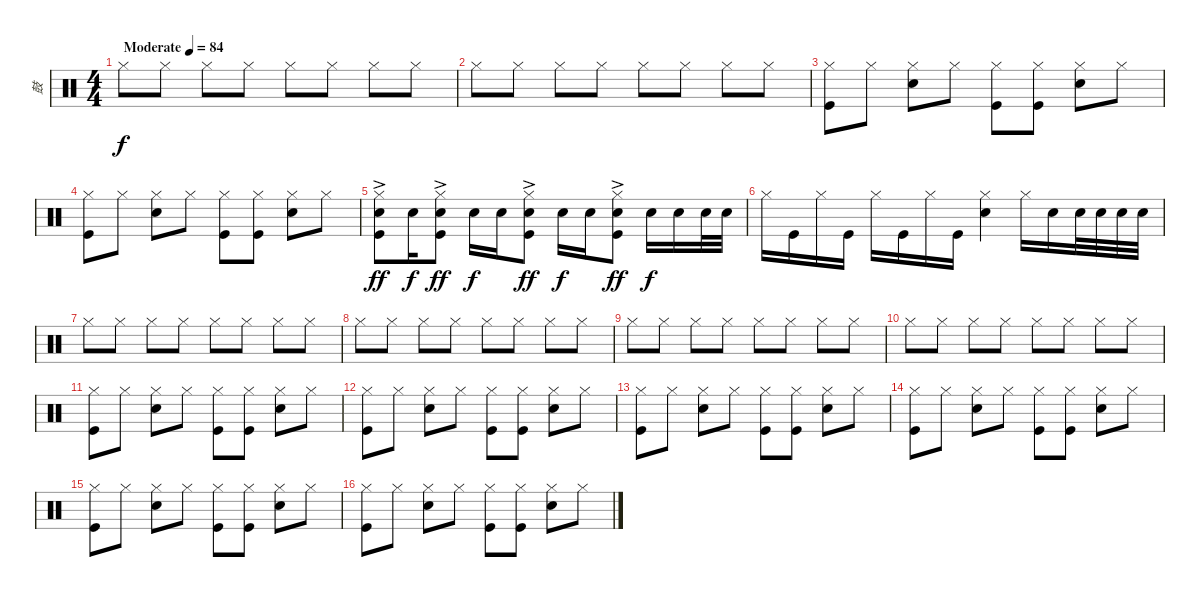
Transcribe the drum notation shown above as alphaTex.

\track ("鼓" "鼓") {instrument percussion}
\staff {score}
\articulation defaults
\ts (4 4)
\tempo (84 "Moderate")
\clef neutral
\ks c "Hi-Hat (closed)".8{dy f} "Hi-Hat (closed)".8 "Hi-Hat (closed)".8 "Hi-Hat (closed)".8 "Hi-Hat (closed)".8 "Hi-Hat (closed)".8 "Hi-Hat (closed)".8 "Hi-Hat (closed)".8
|
"Hi-Hat (closed)".8 "Hi-Hat (closed)".8 "Hi-Hat (closed)".8 "Hi-Hat (closed)".8 "Hi-Hat (closed)".8 "Hi-Hat (closed)".8 "Hi-Hat (closed)".8 "Hi-Hat (closed)".8 |
("Hi-Hat (closed)" "Kick (hit)").8 "Hi-Hat (closed)".8 ("Hi-Hat (closed)" "Snare (hit) 2").8 "Hi-Hat (closed)".8 ("Hi-Hat (closed)" "Kick (hit)").8 ("Hi-Hat (closed)" "Kick (hit)").8 ("Hi-Hat (closed)" "Snare (hit) 2").8 "Hi-Hat (closed)".8 |
("Hi-Hat (closed)" "Kick (hit)").8 "Hi-Hat (closed)".8 ("Hi-Hat (closed)" "Snare (hit) 2").8 "Hi-Hat (closed)".8 ("Hi-Hat (closed)" "Kick (hit)").8 ("Hi-Hat (closed)" "Kick (hit)").8 ("Hi-Hat (closed)" "Snare (hit) 2").8 "Hi-Hat (closed)".8 |
("Hi-Hat (closed)" "Snare (hit) 2" "Kick (hit)"{ac}).8{dy ff} "Snare (hit) 2".16{dy f} ("Hi-Hat (closed)" "Snare (hit) 2" "Kick (hit)"{ac}).8{dy ff} "Snare (hit) 2".16{dy f} "Snare (hit) 2".16 ("Hi-Hat (closed)" "Snare (hit) 2" "Kick (hit)"{ac}).8{dy ff} "Snare (hit) 2".16{dy f} "Snare (hit) 2".16 ("Hi-Hat (closed)" "Snare (hit) 2" "Kick (hit)"{ac}).8{dy ff} "Snare (hit) 2".16{dy f} "Snare (hit) 2".16 "Snare (hit) 2".32 "Snare (hit) 2".32 |
"Hi-Hat (closed)".16 "Kick (hit)".16 "Hi-Hat (closed)".16 "Kick (hit)".16 "Hi-Hat (closed)".16 "Kick (hit)".16 "Hi-Hat (closed)".16 "Kick (hit)".16 ("Hi-Hat (closed)" "Snare (hit) 2").4 "Hi-Hat (closed)".16 "Snare (hit) 2".16 "Snare (hit) 2".32 "Snare (hit) 2".32 "Snare (hit) 2".32 "Snare (hit) 2".32 |
"Hi-Hat (closed)".8 "Hi-Hat (closed)".8 "Hi-Hat (closed)".8 "Hi-Hat (closed)".8 "Hi-Hat (closed)".8 "Hi-Hat (closed)".8 "Hi-Hat (closed)".8 "Hi-Hat (closed)".8 |
"Hi-Hat (closed)".8 "Hi-Hat (closed)".8 "Hi-Hat (closed)".8 "Hi-Hat (closed)".8 "Hi-Hat (closed)".8 "Hi-Hat (closed)".8 "Hi-Hat (closed)".8 "Hi-Hat (closed)".8 |
"Hi-Hat (closed)".8 "Hi-Hat (closed)".8 "Hi-Hat (closed)".8 "Hi-Hat (closed)".8 "Hi-Hat (closed)".8 "Hi-Hat (closed)".8 "Hi-Hat (closed)".8 "Hi-Hat (closed)".8 |
"Hi-Hat (closed)".8 "Hi-Hat (closed)".8 "Hi-Hat (closed)".8 "Hi-Hat (closed)".8 "Hi-Hat (closed)".8 "Hi-Hat (closed)".8 "Hi-Hat (closed)".8 "Hi-Hat (closed)".8 |
("Hi-Hat (closed)" "Kick (hit)").8 "Hi-Hat (closed)".8 ("Hi-Hat (closed)" "Snare (hit) 2").8 "Hi-Hat (closed)".8 ("Hi-Hat (closed)" "Kick (hit)").8 ("Hi-Hat (closed)" "Kick (hit)").8 ("Hi-Hat (closed)" "Snare (hit) 2").8 "Hi-Hat (closed)".8 |
("Hi-Hat (closed)" "Kick (hit)").8 "Hi-Hat (closed)".8 ("Hi-Hat (closed)" "Snare (hit) 2").8 "Hi-Hat (closed)".8 ("Hi-Hat (closed)" "Kick (hit)").8 ("Hi-Hat (closed)" "Kick (hit)").8 ("Hi-Hat (closed)" "Snare (hit) 2").8 "Hi-Hat (closed)".8 |
("Hi-Hat (closed)" "Kick (hit)").8 "Hi-Hat (closed)".8 ("Hi-Hat (closed)" "Snare (hit) 2").8 "Hi-Hat (closed)".8 ("Hi-Hat (closed)" "Kick (hit)").8 ("Hi-Hat (closed)" "Kick (hit)").8 ("Hi-Hat (closed)" "Snare (hit) 2").8 "Hi-Hat (closed)".8 |
("Hi-Hat (closed)" "Kick (hit)").8 "Hi-Hat (closed)".8 ("Hi-Hat (closed)" "Snare (hit) 2").8 "Hi-Hat (closed)".8 ("Hi-Hat (closed)" "Kick (hit)").8 ("Hi-Hat (closed)" "Kick (hit)").8 ("Hi-Hat (closed)" "Snare (hit) 2").8 "Hi-Hat (closed)".8 |
("Hi-Hat (closed)" "Kick (hit)").8 "Hi-Hat (closed)".8 ("Hi-Hat (closed)" "Snare (hit) 2").8 "Hi-Hat (closed)".8 ("Hi-Hat (closed)" "Kick (hit)").8 ("Hi-Hat (closed)" "Kick (hit)").8 ("Hi-Hat (closed)" "Snare (hit) 2").8 "Hi-Hat (closed)".8 |
("Hi-Hat (closed)" "Kick (hit)").8 "Hi-Hat (closed)".8 ("Hi-Hat (closed)" "Snare (hit) 2").8 "Hi-Hat (closed)".8 ("Hi-Hat (closed)" "Kick (hit)").8 ("Hi-Hat (closed)" "Kick (hit)").8 ("Hi-Hat (closed)" "Snare (hit) 2").8 "Hi-Hat (closed)".8
